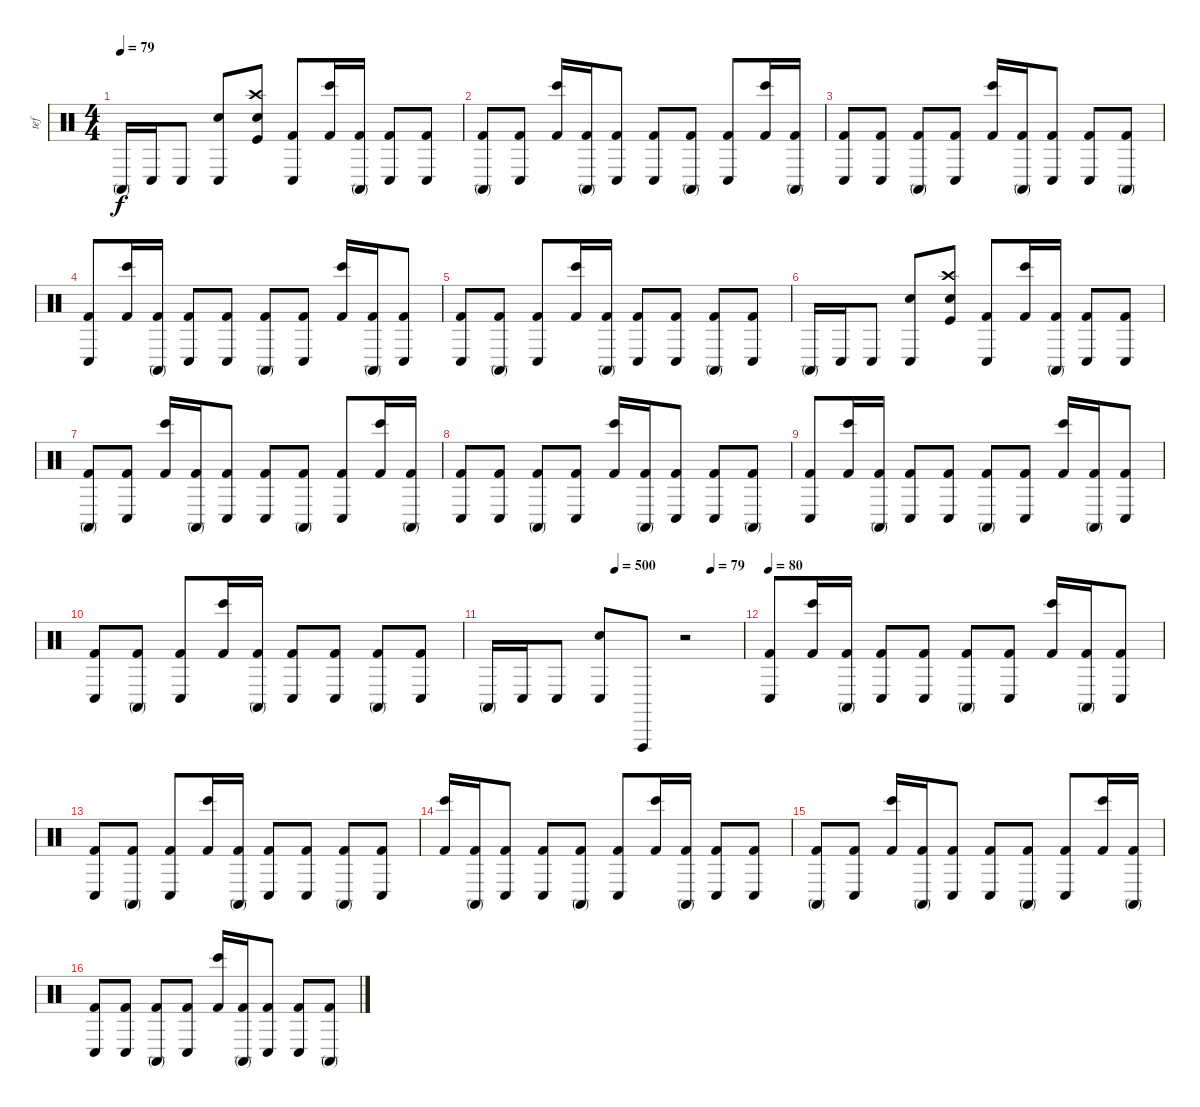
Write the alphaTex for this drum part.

\track ("tef" "tef") {instrument percussion}
\staff {score}
\articulation defaults
\ts (4 4)
\tempo 79
\clef neutral
\ks c "Conga high (mute)".16{dy f} "Conga low (hit)".16 "Conga low (hit)".8
("Conga low (hit)" "Electric Snare (hit)").8 ("Electric Snare (hit)" "Crash high (hit)" "Kick (hit)").8 ("Conga low (hit)" "Kick (hit) 2").8 ("Bongo High (hit)" "Kick (hit) 2").16 ("Conga high (mute)" "Kick (hit) 2").16 ("Conga low (hit)" "Kick (hit) 2").8 ("Conga low (hit)" "Kick (hit) 2").8 |
("Conga high (mute)" "Kick (hit) 2").8 ("Conga low (hit)" "Kick (hit) 2").8 ("Bongo High (hit)" "Kick (hit) 2").16 ("Conga high (mute)" "Kick (hit) 2").16 ("Conga low (hit)" "Kick (hit) 2").8 ("Conga low (hit)" "Kick (hit) 2").8 ("Conga high (mute)" "Kick (hit) 2").8 ("Conga low (hit)" "Kick (hit) 2").8 ("Bongo High (hit)" "Kick (hit) 2").16 ("Conga high (mute)" "Kick (hit) 2").16 |
("Conga low (hit)" "Kick (hit) 2").8 ("Conga low (hit)" "Kick (hit) 2").8 ("Conga high (mute)" "Kick (hit) 2").8 ("Conga low (hit)" "Kick (hit) 2").8 ("Bongo High (hit)" "Kick (hit) 2").16 ("Conga high (mute)" "Kick (hit) 2").16 ("Conga low (hit)" "Kick (hit) 2").8 ("Conga low (hit)" "Kick (hit) 2").8 ("Conga high (mute)" "Kick (hit) 2").8 |
("Conga low (hit)" "Kick (hit) 2").8 ("Bongo High (hit)" "Kick (hit) 2").16 ("Conga high (mute)" "Kick (hit) 2").16 ("Conga low (hit)" "Kick (hit) 2").8 ("Conga low (hit)" "Kick (hit) 2").8 ("Conga high (mute)" "Kick (hit) 2").8 ("Conga low (hit)" "Kick (hit) 2").8 ("Bongo High (hit)" "Kick (hit) 2").16 ("Conga high (mute)" "Kick (hit) 2").16 ("Conga low (hit)" "Kick (hit) 2").8 |
("Conga low (hit)" "Kick (hit) 2").8 ("Conga high (mute)" "Kick (hit) 2").8 ("Conga low (hit)" "Kick (hit) 2").8 ("Bongo High (hit)" "Kick (hit) 2").16 ("Conga high (mute)" "Kick (hit) 2").16 ("Conga low (hit)" "Kick (hit) 2").8 ("Conga low (hit)" "Kick (hit) 2").8 ("Conga high (mute)" "Kick (hit) 2").8 ("Conga low (hit)" "Kick (hit) 2").8 |
"Conga high (mute)".16 "Conga low (hit)".16 "Conga low (hit)".8 ("Conga low (hit)" "Electric Snare (hit)").8 ("Electric Snare (hit)" "Crash high (hit)" "Kick (hit)").8 ("Conga low (hit)" "Kick (hit) 2").8 ("Bongo High (hit)" "Kick (hit) 2").16 ("Conga high (mute)" "Kick (hit) 2").16 ("Conga low (hit)" "Kick (hit) 2").8 ("Conga low (hit)" "Kick (hit) 2").8 |
("Conga high (mute)" "Kick (hit) 2").8 ("Conga low (hit)" "Kick (hit) 2").8 ("Bongo High (hit)" "Kick (hit) 2").16 ("Conga high (mute)" "Kick (hit) 2").16 ("Conga low (hit)" "Kick (hit) 2").8 ("Conga low (hit)" "Kick (hit) 2").8 ("Conga high (mute)" "Kick (hit) 2").8 ("Conga low (hit)" "Kick (hit) 2").8 ("Bongo High (hit)" "Kick (hit) 2").16 ("Conga high (mute)" "Kick (hit) 2").16 |
("Conga low (hit)" "Kick (hit) 2").8 ("Conga low (hit)" "Kick (hit) 2").8 ("Conga high (mute)" "Kick (hit) 2").8 ("Conga low (hit)" "Kick (hit) 2").8 ("Bongo High (hit)" "Kick (hit) 2").16 ("Conga high (mute)" "Kick (hit) 2").16 ("Conga low (hit)" "Kick (hit) 2").8 ("Conga low (hit)" "Kick (hit) 2").8 ("Conga high (mute)" "Kick (hit) 2").8 |
("Conga low (hit)" "Kick (hit) 2").8 ("Bongo High (hit)" "Kick (hit) 2").16 ("Conga high (mute)" "Kick (hit) 2").16 ("Conga low (hit)" "Kick (hit) 2").8 ("Conga low (hit)" "Kick (hit) 2").8 ("Conga high (mute)" "Kick (hit) 2").8 ("Conga low (hit)" "Kick (hit) 2").8 ("Bongo High (hit)" "Kick (hit) 2").16 ("Conga high (mute)" "Kick (hit) 2").16 ("Conga low (hit)" "Kick (hit) 2").8 |
("Conga low (hit)" "Kick (hit) 2").8 ("Conga high (mute)" "Kick (hit) 2").8 ("Conga low (hit)" "Kick (hit) 2").8 ("Bongo High (hit)" "Kick (hit) 2").16 ("Conga high (mute)" "Kick (hit) 2").16 ("Conga low (hit)" "Kick (hit) 2").8 ("Conga low (hit)" "Kick (hit) 2").8 ("Conga high (mute)" "Kick (hit) 2").8 ("Conga low (hit)" "Kick (hit) 2").8 |
\tempo (500 0.5)
\tempo (79 0.875)
"Conga high (mute)".16 "Conga low (hit)".16 "Conga low (hit)".8 ("Conga low (hit)" "Electric Snare (hit)").8 "Vibraslap (hit)".8 r.2 |
\tempo 80
("Conga low (hit)" "Kick (hit) 2").8 ("Bongo High (hit)" "Kick (hit) 2").16 ("Conga high (mute)" "Kick (hit) 2").16 ("Conga low (hit)" "Kick (hit) 2").8 ("Conga low (hit)" "Kick (hit) 2").8 ("Conga high (mute)" "Kick (hit) 2").8 ("Conga low (hit)" "Kick (hit) 2").8 ("Bongo High (hit)" "Kick (hit) 2").16 ("Conga high (mute)" "Kick (hit) 2").16 ("Conga low (hit)" "Kick (hit) 2").8 |
("Conga low (hit)" "Kick (hit) 2").8 ("Conga high (mute)" "Kick (hit) 2").8 ("Conga low (hit)" "Kick (hit) 2").8 ("Bongo High (hit)" "Kick (hit) 2").16 ("Conga high (mute)" "Kick (hit) 2").16 ("Conga low (hit)" "Kick (hit) 2").8 ("Conga low (hit)" "Kick (hit) 2").8 ("Conga high (mute)" "Kick (hit) 2").8 ("Conga low (hit)" "Kick (hit) 2").8 |
("Bongo High (hit)" "Kick (hit) 2").16 ("Conga high (mute)" "Kick (hit) 2").16 ("Conga low (hit)" "Kick (hit) 2").8 ("Conga low (hit)" "Kick (hit) 2").8 ("Conga high (mute)" "Kick (hit) 2").8 ("Conga low (hit)" "Kick (hit) 2").8 ("Bongo High (hit)" "Kick (hit) 2").16 ("Conga high (mute)" "Kick (hit) 2").16 ("Conga low (hit)" "Kick (hit) 2").8 ("Conga low (hit)" "Kick (hit) 2").8 |
("Conga high (mute)" "Kick (hit) 2").8 ("Conga low (hit)" "Kick (hit) 2").8 ("Bongo High (hit)" "Kick (hit) 2").16 ("Conga high (mute)" "Kick (hit) 2").16 ("Conga low (hit)" "Kick (hit) 2").8 ("Conga low (hit)" "Kick (hit) 2").8 ("Conga high (mute)" "Kick (hit) 2").8 ("Conga low (hit)" "Kick (hit) 2").8 ("Bongo High (hit)" "Kick (hit) 2").16 ("Conga high (mute)" "Kick (hit) 2").16 |
("Conga low (hit)" "Kick (hit) 2").8 ("Conga low (hit)" "Kick (hit) 2").8 ("Conga high (mute)" "Kick (hit) 2").8 ("Conga low (hit)" "Kick (hit) 2").8 ("Bongo High (hit)" "Kick (hit) 2").16 ("Conga high (mute)" "Kick (hit) 2").16 ("Conga low (hit)" "Kick (hit) 2").8 ("Conga low (hit)" "Kick (hit) 2").8 ("Conga high (mute)" "Kick (hit) 2").8
